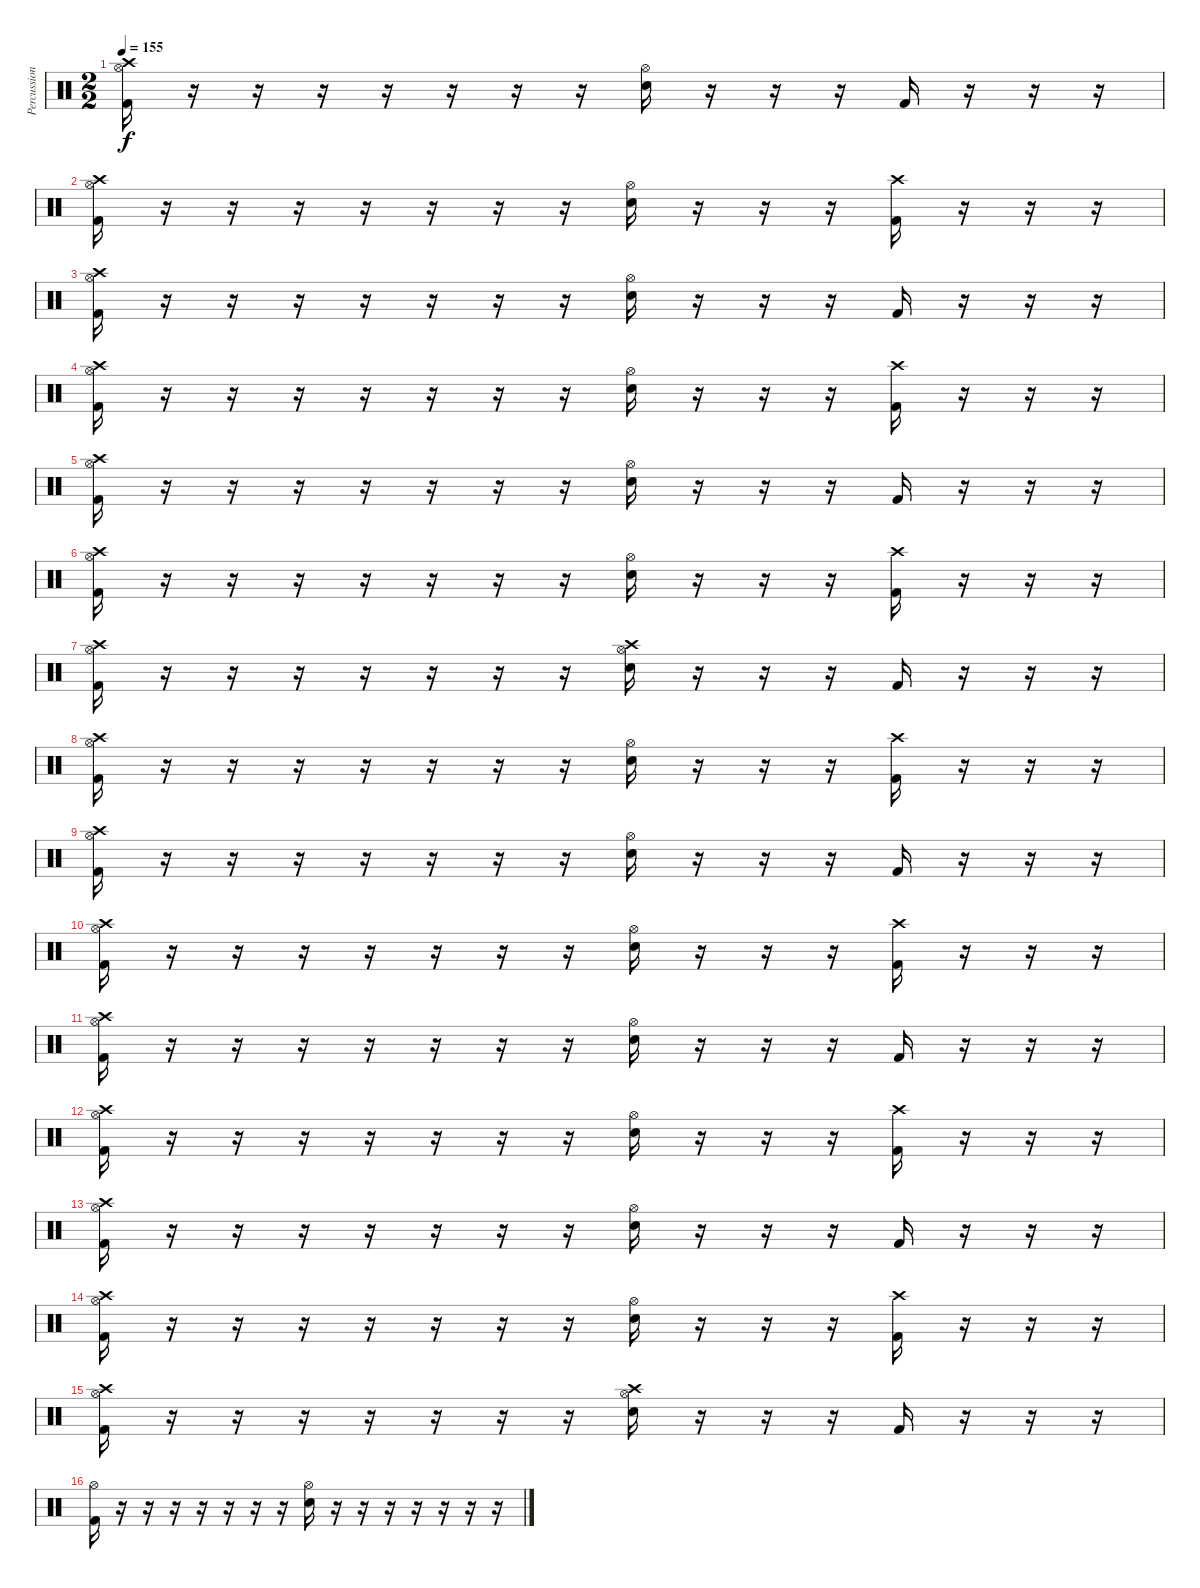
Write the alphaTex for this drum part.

\track ("Percussion" "Percussion") {instrument percussion}
\staff {score}
\articulation defaults
\ts (2 2)
\tempo 155
\clef neutral
\ks c
("Hi-Hat (open)" "Crash high (hit)" "Kick (hit) 2").16{dy f} r.16 r.16 r.16 r.16 r.16 r.16 r.16 ("Hi-Hat (open)" "Snare (hit) 2").16 r.16 r.16 r.16 "Kick (hit) 2".16 r.16 r.16 r.16 |
("Hi-Hat (open)" "Crash high (hit)" "Kick (hit) 2").16 r.16 r.16 r.16 r.16 r.16 r.16 r.16 ("Hi-Hat (open)" "Snare (hit) 2").16 r.16 r.16 r.16 ("Crash high (hit)" "Kick (hit) 2").16 r.16 r.16 r.16 |
("Hi-Hat (open)" "Crash high (hit)" "Kick (hit) 2").16 r.16 r.16 r.16 r.16 r.16 r.16 r.16 ("Hi-Hat (open)" "Snare (hit) 2").16 r.16 r.16 r.16 "Kick (hit) 2".16 r.16 r.16 r.16 |
("Hi-Hat (open)" "Crash high (hit)" "Kick (hit) 2").16 r.16 r.16 r.16 r.16 r.16 r.16 r.16 ("Hi-Hat (open)" "Snare (hit) 2").16 r.16 r.16 r.16 ("Crash high (hit)" "Kick (hit) 2").16 r.16 r.16 r.16 |
("Hi-Hat (open)" "Crash high (hit)" "Kick (hit) 2").16 r.16 r.16 r.16 r.16 r.16 r.16 r.16 ("Hi-Hat (open)" "Snare (hit) 2").16 r.16 r.16 r.16 "Kick (hit) 2".16 r.16 r.16 r.16 |
("Hi-Hat (open)" "Crash high (hit)" "Kick (hit) 2").16 r.16 r.16 r.16 r.16 r.16 r.16 r.16 ("Hi-Hat (open)" "Snare (hit) 2").16 r.16 r.16 r.16 ("Crash high (hit)" "Kick (hit) 2").16 r.16 r.16 r.16 |
("Hi-Hat (open)" "Crash high (hit)" "Kick (hit) 2").16 r.16 r.16 r.16 r.16 r.16 r.16 r.16 ("Hi-Hat (open)" "Crash high (hit)" "Snare (hit) 2").16 r.16 r.16 r.16 "Kick (hit) 2".16 r.16 r.16 r.16 |
("Hi-Hat (open)" "Crash high (hit)" "Kick (hit) 2").16 r.16 r.16 r.16 r.16 r.16 r.16 r.16 ("Hi-Hat (open)" "Snare (hit) 2").16 r.16 r.16 r.16 ("Crash high (hit)" "Kick (hit) 2").16 r.16 r.16 r.16 |
("Hi-Hat (open)" "Crash high (hit)" "Kick (hit) 2").16 r.16 r.16 r.16 r.16 r.16 r.16 r.16 ("Hi-Hat (open)" "Snare (hit) 2").16 r.16 r.16 r.16 "Kick (hit) 2".16 r.16 r.16 r.16 |
("Hi-Hat (open)" "Crash high (hit)" "Kick (hit) 2").16 r.16 r.16 r.16 r.16 r.16 r.16 r.16 ("Hi-Hat (open)" "Snare (hit) 2").16 r.16 r.16 r.16 ("Crash high (hit)" "Kick (hit) 2").16 r.16 r.16 r.16 |
("Hi-Hat (open)" "Crash high (hit)" "Kick (hit) 2").16 r.16 r.16 r.16 r.16 r.16 r.16 r.16 ("Hi-Hat (open)" "Snare (hit) 2").16 r.16 r.16 r.16 "Kick (hit) 2".16 r.16 r.16 r.16 |
("Hi-Hat (open)" "Crash high (hit)" "Kick (hit) 2").16 r.16 r.16 r.16 r.16 r.16 r.16 r.16 ("Hi-Hat (open)" "Snare (hit) 2").16 r.16 r.16 r.16 ("Crash high (hit)" "Kick (hit) 2").16 r.16 r.16 r.16 |
("Hi-Hat (open)" "Crash high (hit)" "Kick (hit) 2").16 r.16 r.16 r.16 r.16 r.16 r.16 r.16 ("Hi-Hat (open)" "Snare (hit) 2").16 r.16 r.16 r.16 "Kick (hit) 2".16 r.16 r.16 r.16 |
("Hi-Hat (open)" "Crash high (hit)" "Kick (hit) 2").16 r.16 r.16 r.16 r.16 r.16 r.16 r.16 ("Hi-Hat (open)" "Snare (hit) 2").16 r.16 r.16 r.16 ("Crash high (hit)" "Kick (hit) 2").16 r.16 r.16 r.16 |
("Hi-Hat (open)" "Crash high (hit)" "Kick (hit) 2").16 r.16 r.16 r.16 r.16 r.16 r.16 r.16 ("Hi-Hat (open)" "Crash high (hit)" "Snare (hit) 2").16 r.16 r.16 r.16 "Kick (hit) 2".16 r.16 r.16 r.16 |
("Hi-Hat (open)" "Kick (hit) 2").16 r.16 r.16 r.16 r.16 r.16 r.16 r.16 ("Hi-Hat (open)" "Snare (hit) 2").16 r.16 r.16 r.16 r.16 r.16 r.16 r.16
